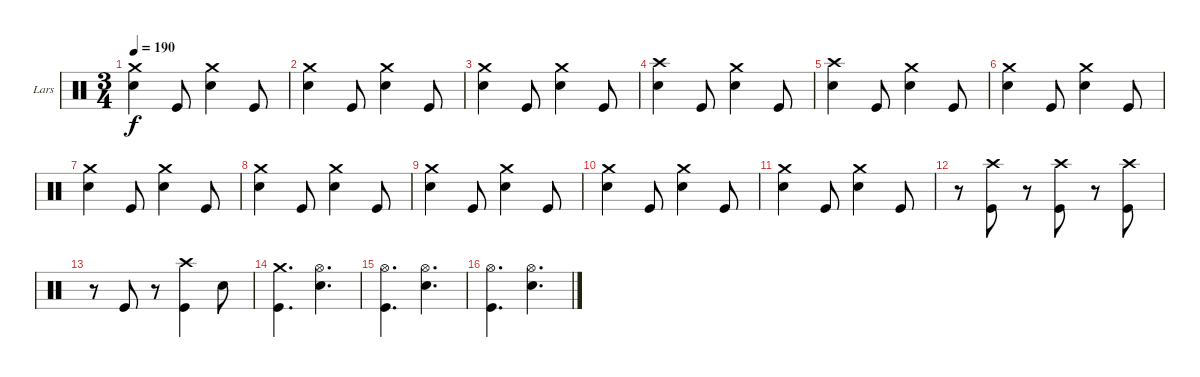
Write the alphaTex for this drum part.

\bracketExtendMode groupsimilarinstruments
\firstSystemTrackNameOrientation horizontal
\otherSystemsTrackNameOrientation horizontal
\track ("Drumkit" "Lars") {instrument percussion}
\staff {score}
\articulation defaults
\ts (3 4)
\tempo 190
\clef neutral
\ks c
("Crash medium (hit)" "Snare (hit) 2").4{dy f} "Kick (hit)".8 ("Crash medium (hit)" "Snare (hit) 2").4 "Kick (hit)".8 |
("Crash medium (hit)" "Snare (hit) 2").4 "Kick (hit)".8 ("Crash medium (hit)" "Snare (hit) 2").4 "Kick (hit)".8 |
("Crash medium (hit)" "Snare (hit) 2").4 "Kick (hit)".8 ("Crash medium (hit)" "Snare (hit) 2").4 "Kick (hit)".8 |
("Crash high (hit)" "Snare (hit) 2").4 "Kick (hit)".8 ("Crash medium (hit)" "Snare (hit) 2").4 "Kick (hit)".8 |
("Crash high (hit)" "Snare (hit) 2").4 "Kick (hit)".8 ("Crash medium (hit)" "Snare (hit) 2").4 "Kick (hit)".8 |
("Crash medium (hit)" "Snare (hit) 2").4 "Kick (hit)".8 ("Crash medium (hit)" "Snare (hit) 2").4 "Kick (hit)".8 |
("Crash medium (hit)" "Snare (hit) 2").4 "Kick (hit)".8 ("Crash medium (hit)" "Snare (hit) 2").4 "Kick (hit)".8 |
("Crash medium (hit)" "Snare (hit) 2").4 "Kick (hit)".8 ("Crash medium (hit)" "Snare (hit) 2").4 "Kick (hit)".8 |
("Crash medium (hit)" "Snare (hit) 2").4 "Kick (hit)".8 ("Crash medium (hit)" "Snare (hit) 2").4 "Kick (hit)".8 |
("Crash medium (hit)" "Snare (hit) 2").4 "Kick (hit)".8 ("Crash medium (hit)" "Snare (hit) 2").4 "Kick (hit)".8 |
("Crash medium (hit)" "Snare (hit) 2").4 "Kick (hit)".8 ("Crash medium (hit)" "Snare (hit) 2").4 "Kick (hit)".8 |
r.8 ("Crash high (hit)" "Kick (hit)").8 r.8 ("Crash high (hit)" "Kick (hit)").8 r.8 ("Crash high (hit)" "Kick (hit)").8 |
r.8 "Kick (hit)".8 r.8 ("Crash high (hit)" "Kick (hit)").4 "Snare (hit) 2".8 |
("Crash medium (hit)" "Kick (hit)").4{d} ("Hi-Hat (open)" "Snare (hit) 2").4{d} |
("Hi-Hat (open)" "Kick (hit)").4{d} ("Hi-Hat (open)" "Snare (hit) 2").4{d} |
("Hi-Hat (open)" "Kick (hit)").4{d} ("Hi-Hat (open)" "Snare (hit) 2").4{d}
